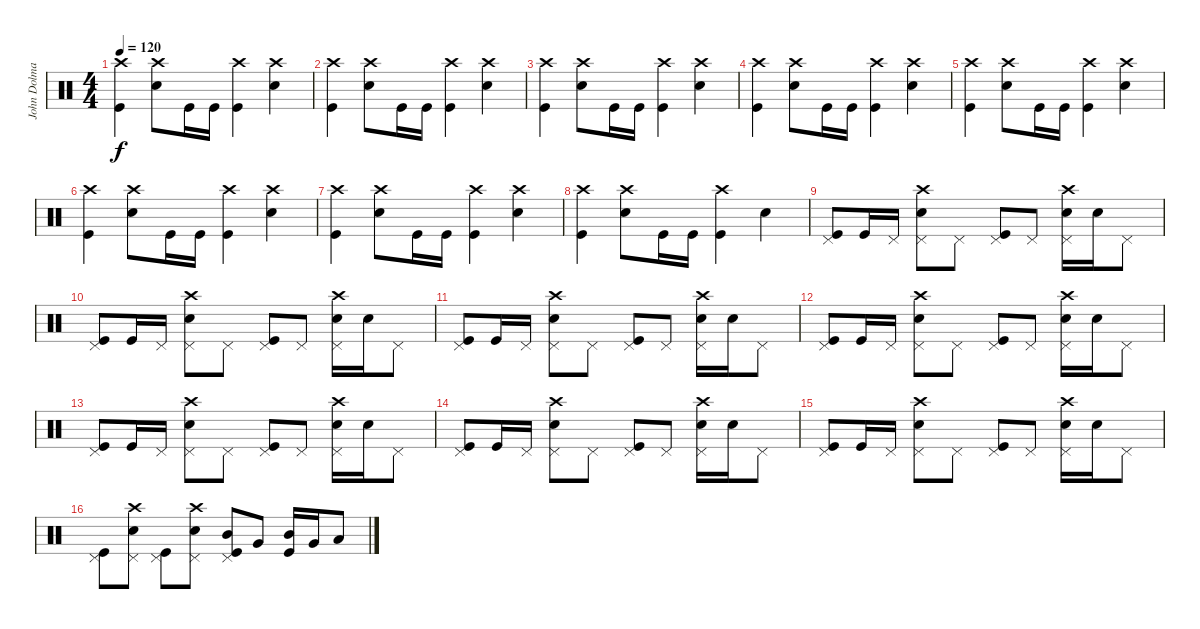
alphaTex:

\track ("John Dolmayan" "John Dolma") {instrument percussion}
\staff {score}
\articulation defaults
\ts (4 4)
\tempo 120
\clef neutral
\ks c
("Crash high (hit)" "Kick (hit)").4{dy f} ("Crash high (hit)" "Electric Snare (hit)").8 "Kick (hit)".16 "Kick (hit)".16 ("Crash high (hit)" "Kick (hit)").4 ("Crash high (hit)" "Electric Snare (hit)").4 |
("Crash high (hit)" "Kick (hit)").4 ("Crash high (hit)" "Electric Snare (hit)").8 "Kick (hit)".16 "Kick (hit)".16 ("Crash high (hit)" "Kick (hit)").4 ("Crash high (hit)" "Electric Snare (hit)").4 |
("Crash high (hit)" "Kick (hit)").4 ("Crash high (hit)" "Electric Snare (hit)").8 "Kick (hit)".16 "Kick (hit)".16 ("Crash high (hit)" "Kick (hit)").4 ("Crash high (hit)" "Electric Snare (hit)").4 |
("Crash high (hit)" "Kick (hit)").4 ("Crash high (hit)" "Electric Snare (hit)").8 "Kick (hit)".16 "Kick (hit)".16 ("Crash high (hit)" "Kick (hit)").4 ("Crash high (hit)" "Electric Snare (hit)").4 |
("Crash high (hit)" "Kick (hit)").4 ("Crash high (hit)" "Electric Snare (hit)").8 "Kick (hit)".16 "Kick (hit)".16 ("Crash high (hit)" "Kick (hit)").4 ("Crash high (hit)" "Electric Snare (hit)").4 |
("Crash high (hit)" "Kick (hit)").4 ("Crash high (hit)" "Electric Snare (hit)").8 "Kick (hit)".16 "Kick (hit)".16 ("Crash high (hit)" "Kick (hit)").4 ("Crash high (hit)" "Electric Snare (hit)").4 |
("Crash high (hit)" "Kick (hit)").4 ("Crash high (hit)" "Electric Snare (hit)").8 "Kick (hit)".16 "Kick (hit)".16 ("Crash high (hit)" "Kick (hit)").4 ("Crash high (hit)" "Electric Snare (hit)").4 |
("Crash high (hit)" "Kick (hit)").4 ("Crash high (hit)" "Electric Snare (hit)").8 "Kick (hit)".16 "Kick (hit)".16 ("Crash high (hit)" "Kick (hit)").4 "Electric Snare (hit)".4 |
("Pedal Hi-Hat (hit)" "Kick (hit)").8 "Kick (hit)".16 "Pedal Hi-Hat (hit)".16 ("Crash high (hit)" "Pedal Hi-Hat (hit)" "Electric Snare (hit)").8 "Pedal Hi-Hat (hit)".8 ("Pedal Hi-Hat (hit)" "Kick (hit)").8 "Pedal Hi-Hat (hit)".8 ("Crash high (hit)" "Pedal Hi-Hat (hit)" "Electric Snare (hit)").16 "Electric Snare (hit)".16 "Pedal Hi-Hat (hit)".8 |
("Pedal Hi-Hat (hit)" "Kick (hit)").8 "Kick (hit)".16 "Pedal Hi-Hat (hit)".16 ("Crash high (hit)" "Pedal Hi-Hat (hit)" "Electric Snare (hit)").8 "Pedal Hi-Hat (hit)".8 ("Pedal Hi-Hat (hit)" "Kick (hit)").8 "Pedal Hi-Hat (hit)".8 ("Crash high (hit)" "Pedal Hi-Hat (hit)" "Electric Snare (hit)").16 "Electric Snare (hit)".16 "Pedal Hi-Hat (hit)".8 |
("Pedal Hi-Hat (hit)" "Kick (hit)").8 "Kick (hit)".16 "Pedal Hi-Hat (hit)".16 ("Crash high (hit)" "Pedal Hi-Hat (hit)" "Electric Snare (hit)").8 "Pedal Hi-Hat (hit)".8 ("Pedal Hi-Hat (hit)" "Kick (hit)").8 "Pedal Hi-Hat (hit)".8 ("Crash high (hit)" "Pedal Hi-Hat (hit)" "Electric Snare (hit)").16 "Electric Snare (hit)".16 "Pedal Hi-Hat (hit)".8 |
("Pedal Hi-Hat (hit)" "Kick (hit)").8 "Kick (hit)".16 "Pedal Hi-Hat (hit)".16 ("Crash high (hit)" "Pedal Hi-Hat (hit)" "Electric Snare (hit)").8 "Pedal Hi-Hat (hit)".8 ("Pedal Hi-Hat (hit)" "Kick (hit)").8 "Pedal Hi-Hat (hit)".8 ("Crash high (hit)" "Pedal Hi-Hat (hit)" "Electric Snare (hit)").16 "Electric Snare (hit)".16 "Pedal Hi-Hat (hit)".8 |
("Pedal Hi-Hat (hit)" "Kick (hit)").8 "Kick (hit)".16 "Pedal Hi-Hat (hit)".16 ("Crash high (hit)" "Pedal Hi-Hat (hit)" "Electric Snare (hit)").8 "Pedal Hi-Hat (hit)".8 ("Pedal Hi-Hat (hit)" "Kick (hit)").8 "Pedal Hi-Hat (hit)".8 ("Crash high (hit)" "Pedal Hi-Hat (hit)" "Electric Snare (hit)").16 "Electric Snare (hit)".16 "Pedal Hi-Hat (hit)".8 |
("Pedal Hi-Hat (hit)" "Kick (hit)").8 "Kick (hit)".16 "Pedal Hi-Hat (hit)".16 ("Crash high (hit)" "Pedal Hi-Hat (hit)" "Electric Snare (hit)").8 "Pedal Hi-Hat (hit)".8 ("Pedal Hi-Hat (hit)" "Kick (hit)").8 "Pedal Hi-Hat (hit)".8 ("Crash high (hit)" "Pedal Hi-Hat (hit)" "Electric Snare (hit)").16 "Electric Snare (hit)".16 "Pedal Hi-Hat (hit)".8 |
("Pedal Hi-Hat (hit)" "Kick (hit)").8 "Kick (hit)".16 "Pedal Hi-Hat (hit)".16 ("Crash high (hit)" "Pedal Hi-Hat (hit)" "Electric Snare (hit)").8 "Pedal Hi-Hat (hit)".8 ("Pedal Hi-Hat (hit)" "Kick (hit)").8 "Pedal Hi-Hat (hit)".8 ("Crash high (hit)" "Pedal Hi-Hat (hit)" "Electric Snare (hit)").16 "Electric Snare (hit)".16 "Pedal Hi-Hat (hit)".8 |
("Pedal Hi-Hat (hit)" "Kick (hit)").8 ("Crash high (hit)" "Pedal Hi-Hat (hit)" "Electric Snare (hit)").8 ("Pedal Hi-Hat (hit)" "Kick (hit)").8 ("Crash high (hit)" "Pedal Hi-Hat (hit)" "Electric Snare (hit)").8 ("Mid Tom (hit)" "Pedal Hi-Hat (hit)" "Kick (hit)").8 "Very Low Tom (hit)".8 ("Mid Tom (hit)" "Kick (hit)").16 "Very Low Tom (hit)".16 "Low Floor Tom (hit)".8
